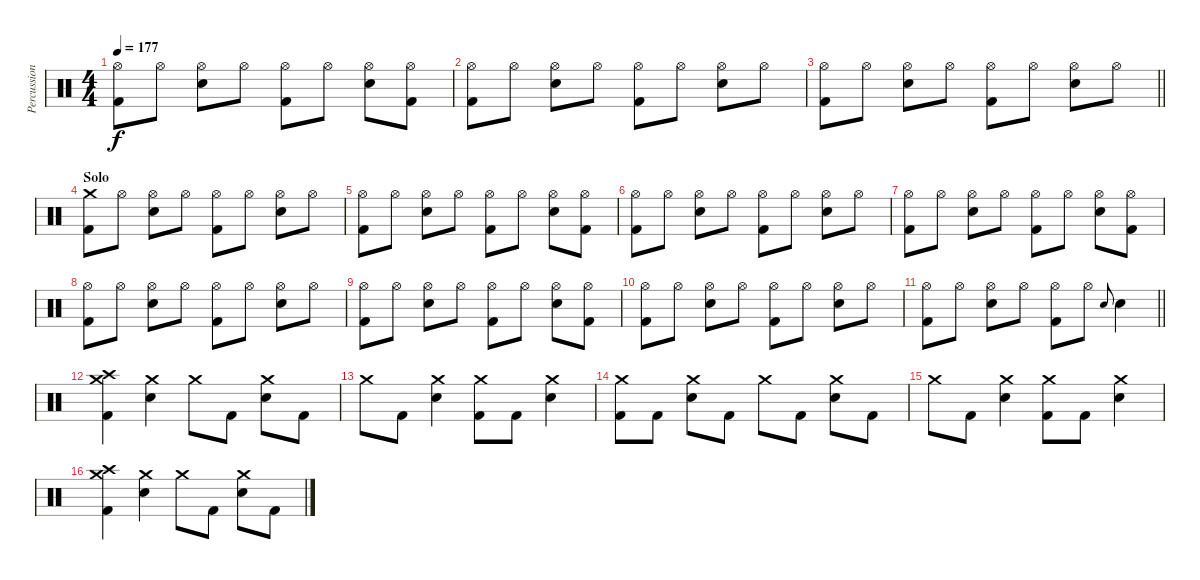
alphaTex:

\track ("Percussion" "Percussion") {instrument percussion}
\staff {score}
\articulation defaults
\ts (4 4)
\tempo 177
\clef neutral
\ks c
("Hi-Hat (open)" "Kick (hit) 2").8{dy f} "Hi-Hat (open)".8 ("Hi-Hat (open)" "Snare (hit) 2").8 "Hi-Hat (open)".8 ("Hi-Hat (open)" "Kick (hit) 2").8 "Hi-Hat (open)".8 ("Hi-Hat (open)" "Snare (hit) 2").8 ("Hi-Hat (open)" "Kick (hit) 2").8 |
("Hi-Hat (open)" "Kick (hit) 2").8 "Hi-Hat (open)".8 ("Hi-Hat (open)" "Snare (hit) 2").8 "Hi-Hat (open)".8 ("Hi-Hat (open)" "Kick (hit) 2").8 "Hi-Hat (open)".8 ("Hi-Hat (open)" "Snare (hit) 2").8 "Hi-Hat (open)".8 |
\barLineRight lightlight
("Hi-Hat (open)" "Kick (hit) 2").8 "Hi-Hat (open)".8 ("Hi-Hat (open)" "Snare (hit) 2").8 "Hi-Hat (open)".8 ("Hi-Hat (open)" "Kick (hit) 2").8 "Hi-Hat (open)".8 ("Hi-Hat (open)" "Snare (hit) 2").8 "Hi-Hat (open)".8 |
\section ("" "Solo")
("Crash medium (hit)" "Kick (hit) 2").8 "Hi-Hat (open)".8 ("Hi-Hat (open)" "Snare (hit) 2").8 "Hi-Hat (open)".8 ("Hi-Hat (open)" "Kick (hit) 2").8 "Hi-Hat (open)".8 ("Hi-Hat (open)" "Snare (hit) 2").8 "Hi-Hat (open)".8 |
("Hi-Hat (open)" "Kick (hit) 2").8 "Hi-Hat (open)".8 ("Hi-Hat (open)" "Snare (hit) 2").8 "Hi-Hat (open)".8 ("Hi-Hat (open)" "Kick (hit) 2").8 "Hi-Hat (open)".8 ("Hi-Hat (open)" "Snare (hit) 2").8 ("Hi-Hat (open)" "Kick (hit) 2").8 |
("Hi-Hat (open)" "Kick (hit) 2").8 "Hi-Hat (open)".8 ("Hi-Hat (open)" "Snare (hit) 2").8 "Hi-Hat (open)".8 ("Hi-Hat (open)" "Kick (hit) 2").8 "Hi-Hat (open)".8 ("Hi-Hat (open)" "Snare (hit) 2").8 "Hi-Hat (open)".8 |
("Hi-Hat (open)" "Kick (hit) 2").8 "Hi-Hat (open)".8 ("Hi-Hat (open)" "Snare (hit) 2").8 "Hi-Hat (open)".8 ("Hi-Hat (open)" "Kick (hit) 2").8 "Hi-Hat (open)".8 ("Hi-Hat (open)" "Snare (hit) 2").8 ("Hi-Hat (open)" "Kick (hit) 2").8 |
("Hi-Hat (open)" "Kick (hit) 2").8 "Hi-Hat (open)".8 ("Hi-Hat (open)" "Snare (hit) 2").8 "Hi-Hat (open)".8 ("Hi-Hat (open)" "Kick (hit) 2").8 "Hi-Hat (open)".8 ("Hi-Hat (open)" "Snare (hit) 2").8 "Hi-Hat (open)".8 |
("Hi-Hat (open)" "Kick (hit) 2").8 "Hi-Hat (open)".8 ("Hi-Hat (open)" "Snare (hit) 2").8 "Hi-Hat (open)".8 ("Hi-Hat (open)" "Kick (hit) 2").8 "Hi-Hat (open)".8 ("Hi-Hat (open)" "Snare (hit) 2").8 ("Hi-Hat (open)" "Kick (hit) 2").8 |
("Hi-Hat (open)" "Kick (hit) 2").8 "Hi-Hat (open)".8 ("Hi-Hat (open)" "Snare (hit) 2").8 "Hi-Hat (open)".8 ("Hi-Hat (open)" "Kick (hit) 2").8 "Hi-Hat (open)".8 ("Hi-Hat (open)" "Snare (hit) 2").8 "Hi-Hat (open)".8 |
\barLineRight lightlight
("Hi-Hat (open)" "Kick (hit) 2").8 "Hi-Hat (open)".8 ("Hi-Hat (open)" "Snare (hit) 2").8 "Hi-Hat (open)".8 ("Hi-Hat (open)" "Kick (hit) 2").8 "Hi-Hat (open)".8 "Snare (hit) 2".8{gr onbeat} "Snare (hit) 2".4 |
("Crash medium (hit)" "Crash high (hit)" "Kick (hit) 2").4 ("Crash medium (hit)" "Snare (hit) 2").4 "Crash medium (hit)".8 "Kick (hit) 2".8 ("Crash medium (hit)" "Snare (hit) 2").8 "Kick (hit) 2".8 |
"Crash medium (hit)".8 "Kick (hit) 2".8 ("Crash medium (hit)" "Snare (hit) 2").4 ("Crash medium (hit)" "Kick (hit) 2").8 "Kick (hit) 2".8 ("Crash medium (hit)" "Snare (hit) 2").4 |
("Crash medium (hit)" "Kick (hit) 2").8 "Kick (hit) 2".8 ("Crash medium (hit)" "Snare (hit) 2").8 "Kick (hit) 2".8 "Crash medium (hit)".8 "Kick (hit) 2".8 ("Crash medium (hit)" "Snare (hit) 2").8 "Kick (hit) 2".8 |
"Crash medium (hit)".8 "Kick (hit) 2".8 ("Crash medium (hit)" "Snare (hit) 2").4 ("Crash medium (hit)" "Kick (hit) 2").8 "Kick (hit) 2".8 ("Crash medium (hit)" "Snare (hit) 2").4 |
("Crash medium (hit)" "Crash high (hit)" "Kick (hit) 2").4 ("Crash medium (hit)" "Snare (hit) 2").4 "Crash medium (hit)".8 "Kick (hit) 2".8 ("Crash medium (hit)" "Snare (hit) 2").8 "Kick (hit) 2".8
